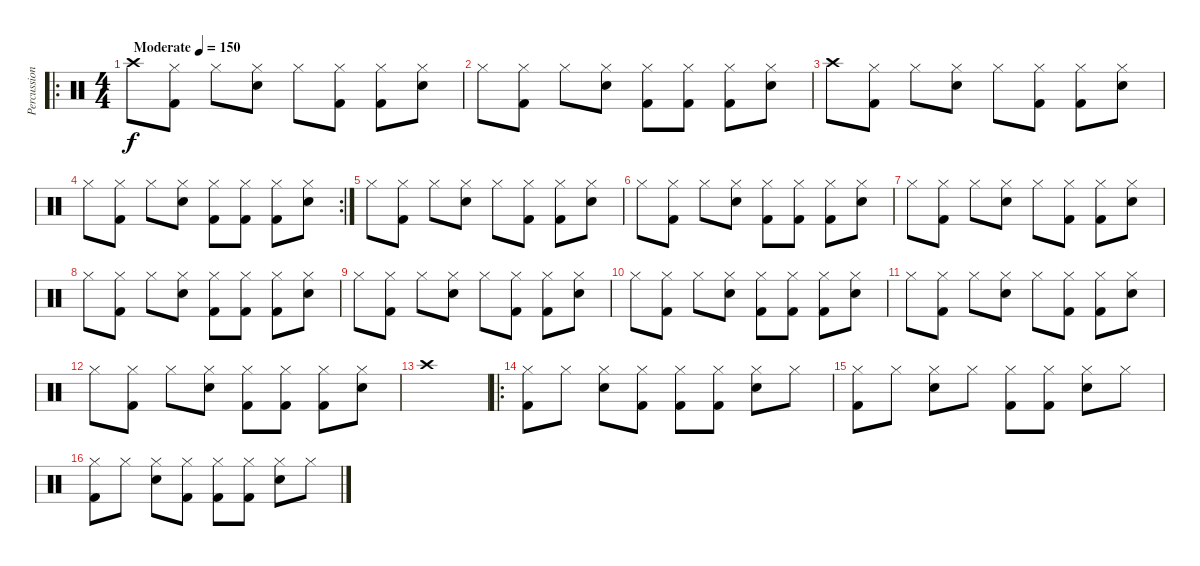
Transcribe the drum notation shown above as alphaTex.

\track ("Percussion" "Percussion") {instrument percussion}
\staff {score}
\articulation defaults
\ro
\ts (4 4)
\tempo (150 "Moderate")
\clef neutral
\ks c "Crash high (hit)".8{dy f}
("Hi-Hat (closed)" "Kick (hit) 2").8 "Hi-Hat (closed)".8 ("Hi-Hat (closed)" "Snare (hit) 2").8 "Hi-Hat (closed)".8 ("Hi-Hat (closed)" "Kick (hit) 2").8 ("Hi-Hat (closed)" "Kick (hit) 2").8 ("Hi-Hat (closed)" "Snare (hit) 2").8 |
"Hi-Hat (closed)".8 ("Hi-Hat (closed)" "Kick (hit) 2").8 "Hi-Hat (closed)".8 ("Hi-Hat (closed)" "Snare (hit) 2").8 ("Hi-Hat (closed)" "Kick (hit) 2").8 ("Hi-Hat (closed)" "Kick (hit) 2").8 ("Hi-Hat (closed)" "Kick (hit) 2").8 ("Hi-Hat (closed)" "Snare (hit) 2").8 |
"Crash high (hit)".8 ("Hi-Hat (closed)" "Kick (hit) 2").8 "Hi-Hat (closed)".8 ("Hi-Hat (closed)" "Snare (hit) 2").8 "Hi-Hat (closed)".8 ("Hi-Hat (closed)" "Kick (hit) 2").8 ("Hi-Hat (closed)" "Kick (hit) 2").8 ("Hi-Hat (closed)" "Snare (hit) 2").8 |
\rc 2 "Hi-Hat (closed)".8
("Hi-Hat (closed)" "Kick (hit) 2").8 "Hi-Hat (closed)".8 ("Hi-Hat (closed)" "Snare (hit) 2").8 ("Hi-Hat (closed)" "Kick (hit) 2").8 ("Hi-Hat (closed)" "Kick (hit) 2").8 ("Hi-Hat (closed)" "Kick (hit) 2").8 ("Hi-Hat (closed)" "Snare (hit) 2").8 |
"Hi-Hat (closed)".8 ("Hi-Hat (closed)" "Kick (hit) 2").8 "Hi-Hat (closed)".8 ("Hi-Hat (closed)" "Snare (hit) 2").8 "Hi-Hat (closed)".8 ("Hi-Hat (closed)" "Kick (hit) 2").8 ("Hi-Hat (closed)" "Kick (hit) 2").8 ("Hi-Hat (closed)" "Snare (hit) 2").8 |
"Hi-Hat (closed)".8 ("Hi-Hat (closed)" "Kick (hit) 2").8 "Hi-Hat (closed)".8 ("Hi-Hat (closed)" "Snare (hit) 2").8 ("Hi-Hat (closed)" "Kick (hit) 2").8 ("Hi-Hat (closed)" "Kick (hit) 2").8 ("Hi-Hat (closed)" "Kick (hit) 2").8 ("Hi-Hat (closed)" "Snare (hit) 2").8 |
"Hi-Hat (closed)".8 ("Hi-Hat (closed)" "Kick (hit) 2").8 "Hi-Hat (closed)".8 ("Hi-Hat (closed)" "Snare (hit) 2").8 "Hi-Hat (closed)".8 ("Hi-Hat (closed)" "Kick (hit) 2").8 ("Hi-Hat (closed)" "Kick (hit) 2").8 ("Hi-Hat (closed)" "Snare (hit) 2").8 |
"Hi-Hat (closed)".8 ("Hi-Hat (closed)" "Kick (hit) 2").8 "Hi-Hat (closed)".8 ("Hi-Hat (closed)" "Snare (hit) 2").8 ("Hi-Hat (closed)" "Kick (hit) 2").8 ("Hi-Hat (closed)" "Kick (hit) 2").8 ("Hi-Hat (closed)" "Kick (hit) 2").8 ("Hi-Hat (closed)" "Snare (hit) 2").8 |
"Hi-Hat (closed)".8 ("Hi-Hat (closed)" "Kick (hit) 2").8 "Hi-Hat (closed)".8 ("Hi-Hat (closed)" "Snare (hit) 2").8 "Hi-Hat (closed)".8 ("Hi-Hat (closed)" "Kick (hit) 2").8 ("Hi-Hat (closed)" "Kick (hit) 2").8 ("Hi-Hat (closed)" "Snare (hit) 2").8 |
"Hi-Hat (closed)".8 ("Hi-Hat (closed)" "Kick (hit) 2").8 "Hi-Hat (closed)".8 ("Hi-Hat (closed)" "Snare (hit) 2").8 ("Hi-Hat (closed)" "Kick (hit) 2").8 ("Hi-Hat (closed)" "Kick (hit) 2").8 ("Hi-Hat (closed)" "Kick (hit) 2").8 ("Hi-Hat (closed)" "Snare (hit) 2").8 |
"Hi-Hat (closed)".8 ("Hi-Hat (closed)" "Kick (hit) 2").8 "Hi-Hat (closed)".8 ("Hi-Hat (closed)" "Snare (hit) 2").8 "Hi-Hat (closed)".8 ("Hi-Hat (closed)" "Kick (hit) 2").8 ("Hi-Hat (closed)" "Kick (hit) 2").8 ("Hi-Hat (closed)" "Snare (hit) 2").8 |
"Hi-Hat (closed)".8 ("Hi-Hat (closed)" "Kick (hit) 2").8 "Hi-Hat (closed)".8 ("Hi-Hat (closed)" "Snare (hit) 2").8 ("Hi-Hat (closed)" "Kick (hit) 2").8 ("Hi-Hat (closed)" "Kick (hit) 2").8 ("Hi-Hat (closed)" "Kick (hit) 2").8 ("Hi-Hat (closed)" "Snare (hit) 2").8 |
"Crash high (hit)".1 |
\ro
("Hi-Hat (closed)" "Kick (hit) 2").8 "Hi-Hat (closed)".8 ("Hi-Hat (closed)" "Snare (hit) 2").8 ("Hi-Hat (closed)" "Kick (hit) 2").8 ("Hi-Hat (closed)" "Kick (hit) 2").8 ("Hi-Hat (closed)" "Kick (hit) 2").8 ("Hi-Hat (closed)" "Snare (hit) 2").8 "Hi-Hat (closed)".8 |
("Hi-Hat (closed)" "Kick (hit) 2").8 "Hi-Hat (closed)".8 ("Hi-Hat (closed)" "Snare (hit) 2").8 "Hi-Hat (closed)".8 ("Hi-Hat (closed)" "Kick (hit) 2").8 ("Hi-Hat (closed)" "Kick (hit) 2").8 ("Hi-Hat (closed)" "Snare (hit) 2").8 "Hi-Hat (closed)".8 |
("Hi-Hat (closed)" "Kick (hit) 2").8 "Hi-Hat (closed)".8 ("Hi-Hat (closed)" "Snare (hit) 2").8 ("Hi-Hat (closed)" "Kick (hit) 2").8 ("Hi-Hat (closed)" "Kick (hit) 2").8 ("Hi-Hat (closed)" "Kick (hit) 2").8 ("Hi-Hat (closed)" "Snare (hit) 2").8 "Hi-Hat (closed)".8
